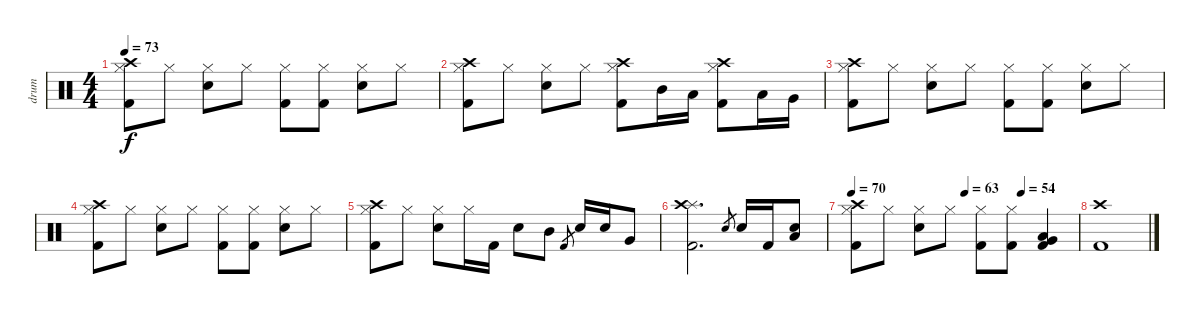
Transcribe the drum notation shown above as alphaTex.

\track ("drum" "drum") {instrument percussion}
\staff {score}
\articulation defaults
\ts (4 4)
\tempo 73
\clef neutral
\ks c
("Crash high (hit)" "Hi-Hat (closed)" "Kick (hit) 2").8{dy f} "Hi-Hat (closed)".8 ("Hi-Hat (closed)" "Electric Snare (hit)").8 "Hi-Hat (closed)".8 ("Hi-Hat (closed)" "Kick (hit) 2").8 ("Hi-Hat (closed)" "Kick (hit) 2").8 ("Hi-Hat (closed)" "Electric Snare (hit)").8 "Hi-Hat (closed)".8 |
("Crash high (hit)" "Hi-Hat (closed)" "Kick (hit) 2").8 "Hi-Hat (closed)".8 ("Hi-Hat (closed)" "Electric Snare (hit)").8 "Hi-Hat (closed)".8 ("Crash high (hit)" "Hi-Hat (closed)" "Kick (hit) 2").8 "Mid Tom (hit)".16 "Low Tom (hit)".16 ("Crash high (hit)" "Hi-Hat (closed)" "Kick (hit) 2").8 "Low Tom (hit)".16 "Very Low Tom (hit)".16 |
("Crash high (hit)" "Hi-Hat (closed)" "Kick (hit) 2").8 "Hi-Hat (closed)".8 ("Hi-Hat (closed)" "Electric Snare (hit)").8 "Hi-Hat (closed)".8 ("Hi-Hat (closed)" "Kick (hit) 2").8 ("Hi-Hat (closed)" "Kick (hit) 2").8 ("Hi-Hat (closed)" "Electric Snare (hit)").8 "Hi-Hat (closed)".8 |
("Crash high (hit)" "Hi-Hat (closed)" "Kick (hit) 2").8 "Hi-Hat (closed)".8 ("Hi-Hat (closed)" "Electric Snare (hit)").8 "Hi-Hat (closed)".8 ("Hi-Hat (closed)" "Kick (hit) 2").8 ("Hi-Hat (closed)" "Kick (hit) 2").8 ("Hi-Hat (closed)" "Electric Snare (hit)").8 "Hi-Hat (closed)".8 |
("Crash high (hit)" "Hi-Hat (closed)" "Kick (hit) 2").8 "Hi-Hat (closed)".8 ("Hi-Hat (closed)" "Electric Snare (hit)").8 "Hi-Hat (closed)".16 "Kick (hit) 2".16 "Electric Snare (hit)".8 "Mid Tom (hit)".8 "Kick (hit) 2".8{gr} "Electric Snare (hit)".16 "Electric Snare (hit)".16 "Very Low Tom (hit)".8 |
("Splash (hit)" "Crash high (hit)" "Kick (hit) 2").2{d} "Electric Snare (hit)".8{gr} "Electric Snare (hit)".16 "Kick (hit) 2".16 ("Electric Snare (hit)" "Low Floor Tom (hit)").8 |
\tempo 70
\tempo (63 0.5)
\tempo (54 0.75)
("Crash high (hit)" "Hi-Hat (closed)" "Kick (hit) 2").8 "Hi-Hat (closed)".8 ("Hi-Hat (closed)" "Electric Snare (hit)").8 "Hi-Hat (closed)".8 ("Hi-Hat (closed)" "Kick (hit) 2").8 ("Hi-Hat (closed)" "Kick (hit) 2").8 ("Very Low Tom (hit)" "Kick (hit) 2" "Low Floor Tom (hit)").4 |
("Crash high (hit)" "Kick (hit) 2").1
